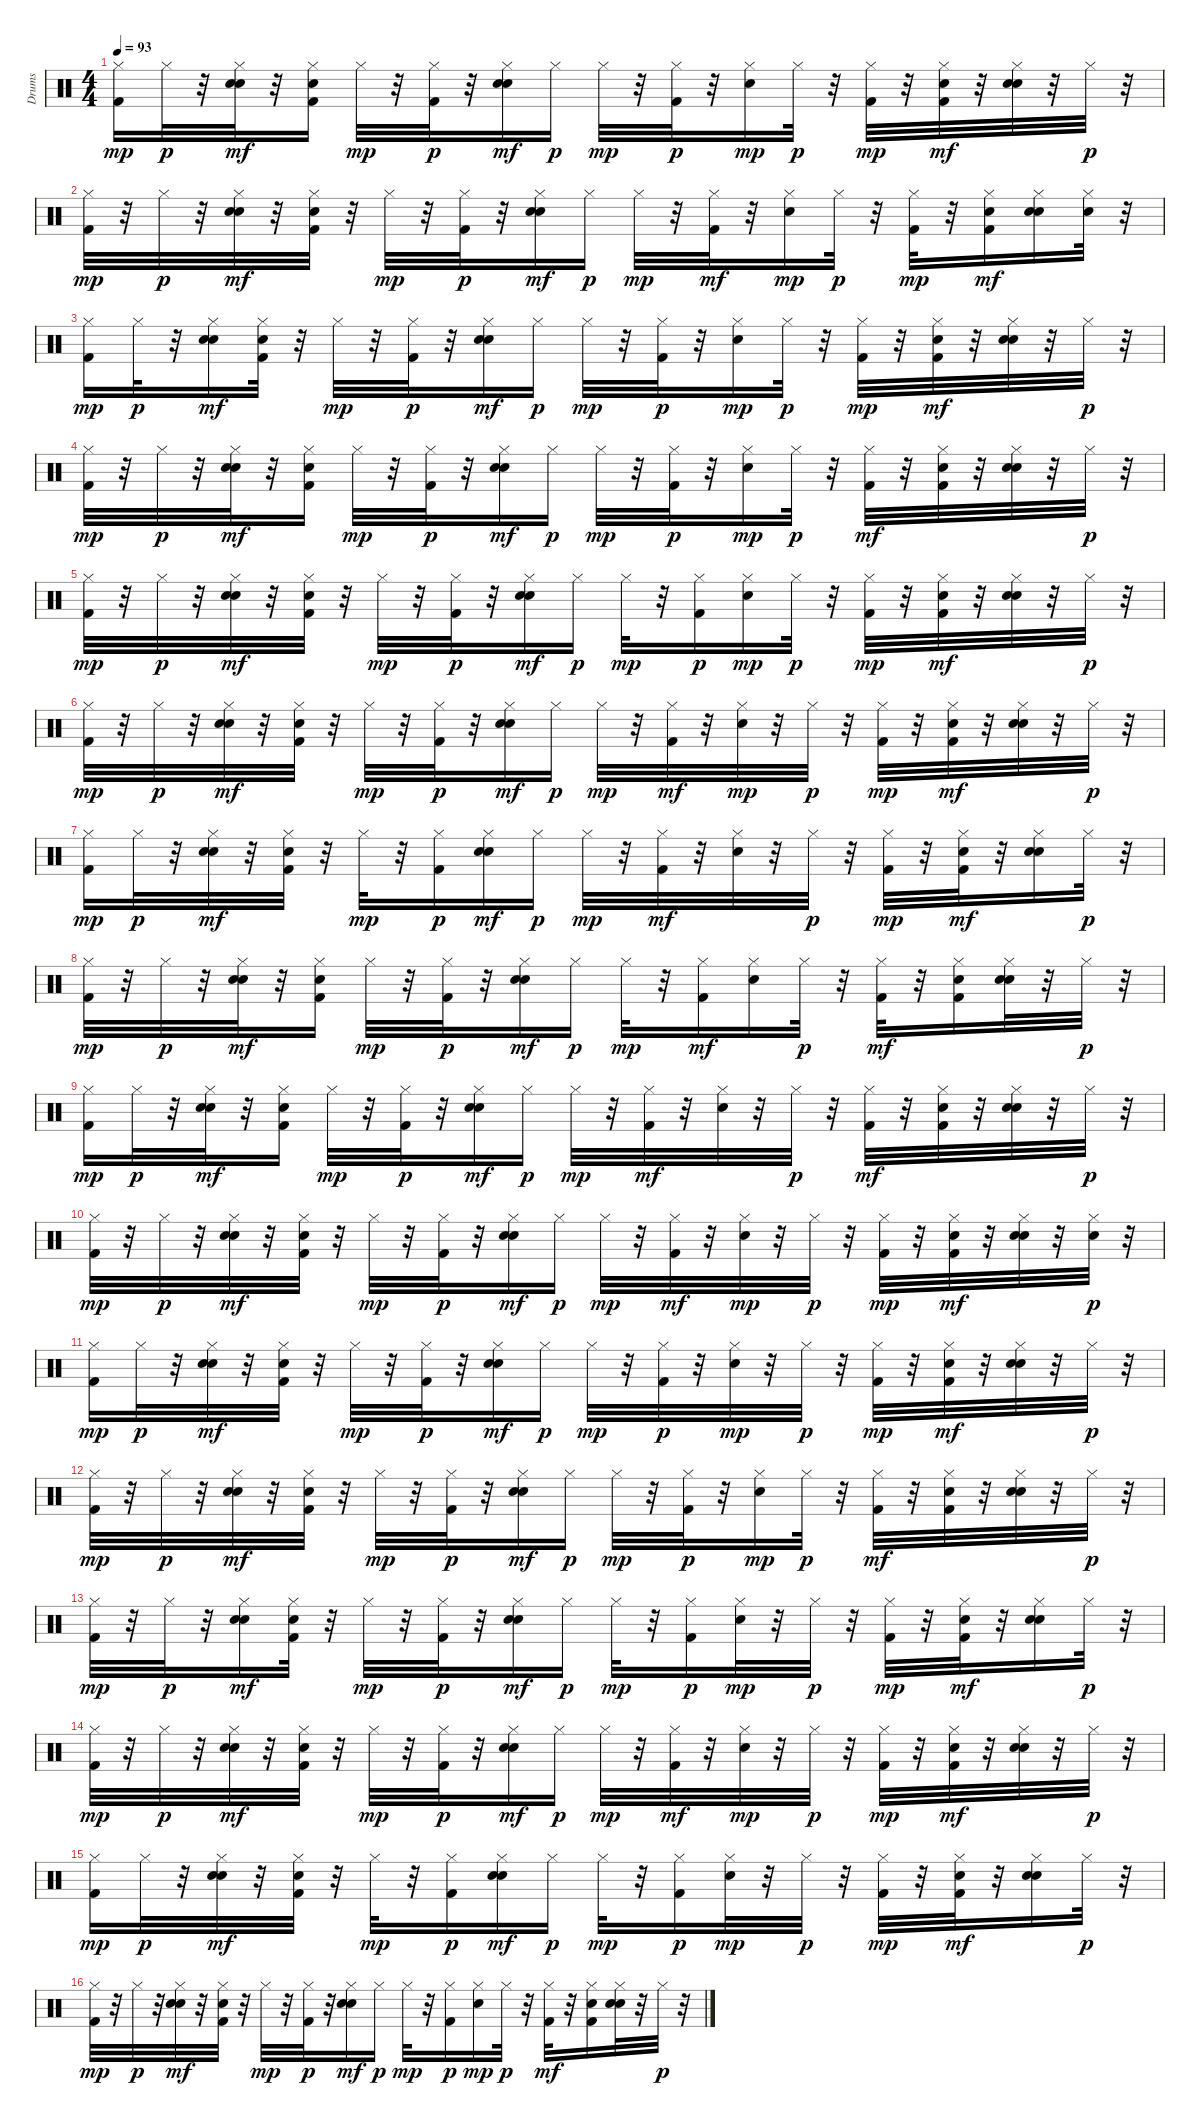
\track ("Drums" "Drums") {instrument percussion}
\staff {score}
\articulation defaults
\ts (4 4)
\tempo 93
\clef neutral
\ks c
("Kick (hit) 2" "Hi-Hat (closed)").16{dy mp} "Hi-Hat (closed)".32{dy p} r.32 ("Electric Snare (hit)" "Hi-Hat (closed)" "Hand Clap (hit)").32{dy mf} r.32 ("Hand Clap (hit)" "Hi-Hat (closed)" "Kick (hit) 2").16 "Hi-Hat (closed)".32{dy mp} r.32 ("Kick (hit) 2" "Hi-Hat (closed)").32{dy p} r.32 ("Hand Clap (hit)" "Hi-Hat (closed)" "Electric Snare (hit)").16{dy mf} "Hi-Hat (closed)".16{dy p} "Hi-Hat (closed)".32{dy mp} r.32 ("Kick (hit) 2" "Hi-Hat (closed)").32{dy p} r.32 ("Electric Snare (hit)" "Hi-Hat (closed)").16{dy mp} "Hi-Hat (closed)".32{dy p} r.32 ("Kick (hit) 2" "Hi-Hat (closed)").32{dy mp} r.32 ("Hand Clap (hit)" "Hi-Hat (closed)" "Kick (hit) 2").32{dy mf} r.32 ("Hand Clap (hit)" "Hi-Hat (closed)" "Electric Snare (hit)").32 r.32 "Hi-Hat (closed)".32{dy p} r.32 |
("Kick (hit) 2" "Hi-Hat (closed)").32{dy mp} r.32 "Hi-Hat (closed)".32{dy p} r.32 ("Electric Snare (hit)" "Hi-Hat (closed)" "Hand Clap (hit)").32{dy mf} r.32 ("Hi-Hat (closed)" "Hand Clap (hit)" "Kick (hit) 2").32 r.32 "Hi-Hat (closed)".32{dy mp} r.32 ("Kick (hit) 2" "Hi-Hat (closed)").32{dy p} r.32 ("Hi-Hat (closed)" "Hand Clap (hit)" "Electric Snare (hit)").16{dy mf} "Hi-Hat (closed)".16{dy p} "Hi-Hat (closed)".32{dy mp} r.32 ("Hi-Hat (closed)" "Kick (hit) 2").32{dy mf} r.32 ("Electric Snare (hit)" "Hi-Hat (closed)").16{dy mp} "Hi-Hat (closed)".32{dy p} r.32 ("Kick (hit) 2" "Hi-Hat (closed)").32{dy mp} r.32 ("Kick (hit) 2" "Hi-Hat (closed)" "Hand Clap (hit)").16{dy mf} ("Electric Snare (hit)" "Hi-Hat (closed)" "Hand Clap (hit)").16 ("Hi-Hat (closed)" "Electric Snare (hit)").32 r.32 |
("Kick (hit) 2" "Hi-Hat (closed)").16{dy mp} "Hi-Hat (closed)".32{dy p} r.32 ("Electric Snare (hit)" "Hi-Hat (closed)" "Hand Clap (hit)").16{dy mf} ("Hand Clap (hit)" "Hi-Hat (closed)" "Kick (hit) 2").32 r.32 "Hi-Hat (closed)".32{dy mp} r.32 ("Kick (hit) 2" "Hi-Hat (closed)").32{dy p} r.32 ("Hand Clap (hit)" "Hi-Hat (closed)" "Electric Snare (hit)").16{dy mf} "Hi-Hat (closed)".16{dy p} "Hi-Hat (closed)".32{dy mp} r.32 ("Kick (hit) 2" "Hi-Hat (closed)").32{dy p} r.32 ("Electric Snare (hit)" "Hi-Hat (closed)").16{dy mp} "Hi-Hat (closed)".32{dy p} r.32 ("Kick (hit) 2" "Hi-Hat (closed)").32{dy mp} r.32 ("Hand Clap (hit)" "Hi-Hat (closed)" "Kick (hit) 2").32{dy mf} r.32 ("Hand Clap (hit)" "Hi-Hat (closed)" "Electric Snare (hit)").32 r.32 "Hi-Hat (closed)".32{dy p} r.32 |
("Kick (hit) 2" "Hi-Hat (closed)").32{dy mp} r.32 "Hi-Hat (closed)".32{dy p} r.32 ("Electric Snare (hit)" "Hi-Hat (closed)" "Hand Clap (hit)").32{dy mf} r.32 ("Hand Clap (hit)" "Hi-Hat (closed)" "Kick (hit) 2").16 "Hi-Hat (closed)".32{dy mp} r.32 ("Kick (hit) 2" "Hi-Hat (closed)").32{dy p} r.32 ("Hand Clap (hit)" "Hi-Hat (closed)" "Electric Snare (hit)").16{dy mf} "Hi-Hat (closed)".16{dy p} "Hi-Hat (closed)".32{dy mp} r.32 ("Kick (hit) 2" "Hi-Hat (closed)").32{dy p} r.32 ("Electric Snare (hit)" "Hi-Hat (closed)").16{dy mp} "Hi-Hat (closed)".32{dy p} r.32 ("Hi-Hat (closed)" "Kick (hit) 2").32{dy mf} r.32 ("Hand Clap (hit)" "Hi-Hat (closed)" "Kick (hit) 2").32 r.32 ("Hand Clap (hit)" "Hi-Hat (closed)" "Electric Snare (hit)").32 r.32 "Hi-Hat (closed)".32{dy p} r.32 |
("Kick (hit) 2" "Hi-Hat (closed)").32{dy mp} r.32 "Hi-Hat (closed)".32{dy p} r.32 ("Electric Snare (hit)" "Hi-Hat (closed)" "Hand Clap (hit)").32{dy mf} r.32 ("Hand Clap (hit)" "Hi-Hat (closed)" "Kick (hit) 2").32 r.32 "Hi-Hat (closed)".32{dy mp} r.32 ("Kick (hit) 2" "Hi-Hat (closed)").32{dy p} r.32 ("Hand Clap (hit)" "Hi-Hat (closed)" "Electric Snare (hit)").16{dy mf} "Hi-Hat (closed)".16{dy p} "Hi-Hat (closed)".32{dy mp} r.32 ("Kick (hit) 2" "Hi-Hat (closed)").16{dy p} ("Electric Snare (hit)" "Hi-Hat (closed)").16{dy mp} "Hi-Hat (closed)".32{dy p} r.32 ("Kick (hit) 2" "Hi-Hat (closed)").32{dy mp} r.32 ("Hand Clap (hit)" "Hi-Hat (closed)" "Kick (hit) 2").32{dy mf} r.32 ("Hand Clap (hit)" "Hi-Hat (closed)" "Electric Snare (hit)").32 r.32 "Hi-Hat (closed)".32{dy p} r.32 |
("Kick (hit) 2" "Hi-Hat (closed)").32{dy mp} r.32 "Hi-Hat (closed)".32{dy p} r.32 ("Electric Snare (hit)" "Hi-Hat (closed)" "Hand Clap (hit)").32{dy mf} r.32 ("Hi-Hat (closed)" "Hand Clap (hit)" "Kick (hit) 2").32 r.32 "Hi-Hat (closed)".32{dy mp} r.32 ("Kick (hit) 2" "Hi-Hat (closed)").32{dy p} r.32 ("Hi-Hat (closed)" "Hand Clap (hit)" "Electric Snare (hit)").16{dy mf} "Hi-Hat (closed)".16{dy p} "Hi-Hat (closed)".32{dy mp} r.32 ("Hi-Hat (closed)" "Kick (hit) 2").32{dy mf} r.32 ("Electric Snare (hit)" "Hi-Hat (closed)").32{dy mp} r.32 "Hi-Hat (closed)".32{dy p} r.32 ("Kick (hit) 2" "Hi-Hat (closed)").32{dy mp} r.32 ("Kick (hit) 2" "Hi-Hat (closed)" "Hand Clap (hit)").32{dy mf} r.32 ("Electric Snare (hit)" "Hi-Hat (closed)" "Hand Clap (hit)").32 r.32 "Hi-Hat (closed)".32{dy p} r.32 |
("Kick (hit) 2" "Hi-Hat (closed)").16{dy mp} "Hi-Hat (closed)".32{dy p} r.32 ("Electric Snare (hit)" "Hi-Hat (closed)" "Hand Clap (hit)").32{dy mf} r.32 ("Hand Clap (hit)" "Hi-Hat (closed)" "Kick (hit) 2").32 r.32 "Hi-Hat (closed)".32{dy mp} r.32 ("Kick (hit) 2" "Hi-Hat (closed)").16{dy p} ("Hand Clap (hit)" "Hi-Hat (closed)" "Electric Snare (hit)").16{dy mf} "Hi-Hat (closed)".16{dy p} "Hi-Hat (closed)".32{dy mp} r.32 ("Hi-Hat (closed)" "Kick (hit) 2").32{dy mf} r.32 ("Hi-Hat (closed)" "Electric Snare (hit)").32 r.32 "Hi-Hat (closed)".32{dy p} r.32 ("Kick (hit) 2" "Hi-Hat (closed)").32{dy mp} r.32 ("Hand Clap (hit)" "Hi-Hat (closed)" "Kick (hit) 2").32{dy mf} r.32 ("Hi-Hat (closed)" "Hand Clap (hit)" "Electric Snare (hit)").16 "Hi-Hat (closed)".32{dy p} r.32 |
("Kick (hit) 2" "Hi-Hat (closed)").32{dy mp} r.32 "Hi-Hat (closed)".32{dy p} r.32 ("Electric Snare (hit)" "Hi-Hat (closed)" "Hand Clap (hit)").32{dy mf} r.32 ("Hand Clap (hit)" "Hi-Hat (closed)" "Kick (hit) 2").16 "Hi-Hat (closed)".32{dy mp} r.32 ("Kick (hit) 2" "Hi-Hat (closed)").32{dy p} r.32 ("Hand Clap (hit)" "Hi-Hat (closed)" "Electric Snare (hit)").16{dy mf} "Hi-Hat (closed)".16{dy p} "Hi-Hat (closed)".32{dy mp} r.32 ("Hi-Hat (closed)" "Kick (hit) 2").16{dy mf} ("Hi-Hat (closed)" "Electric Snare (hit)").16 "Hi-Hat (closed)".32{dy p} r.32 ("Hi-Hat (closed)" "Kick (hit) 2").32{dy mf} r.32 ("Hand Clap (hit)" "Hi-Hat (closed)" "Kick (hit) 2").16 ("Hi-Hat (closed)" "Hand Clap (hit)" "Electric Snare (hit)").32 r.32 "Hi-Hat (closed)".32{dy p} r.32 |
("Kick (hit) 2" "Hi-Hat (closed)").16{dy mp} "Hi-Hat (closed)".32{dy p} r.32 ("Electric Snare (hit)" "Hi-Hat (closed)" "Hand Clap (hit)").32{dy mf} r.32 ("Hand Clap (hit)" "Hi-Hat (closed)" "Kick (hit) 2").16 "Hi-Hat (closed)".32{dy mp} r.32 ("Kick (hit) 2" "Hi-Hat (closed)").32{dy p} r.32 ("Hand Clap (hit)" "Hi-Hat (closed)" "Electric Snare (hit)").16{dy mf} "Hi-Hat (closed)".16{dy p} "Hi-Hat (closed)".32{dy mp} r.32 ("Hi-Hat (closed)" "Kick (hit) 2").32{dy mf} r.32 ("Hi-Hat (closed)" "Electric Snare (hit)").32 r.32 "Hi-Hat (closed)".32{dy p} r.32 ("Hi-Hat (closed)" "Kick (hit) 2").32{dy mf} r.32 ("Hi-Hat (closed)" "Hand Clap (hit)" "Kick (hit) 2").32 r.32 ("Hi-Hat (closed)" "Hand Clap (hit)" "Electric Snare (hit)").32 r.32 "Hi-Hat (closed)".32{dy p} r.32 |
("Kick (hit) 2" "Hi-Hat (closed)").32{dy mp} r.32 "Hi-Hat (closed)".32{dy p} r.32 ("Hand Clap (hit)" "Hi-Hat (closed)" "Electric Snare (hit)").32{dy mf} r.32 ("Hand Clap (hit)" "Hi-Hat (closed)" "Kick (hit) 2").32 r.32 "Hi-Hat (closed)".32{dy mp} r.32 ("Kick (hit) 2" "Hi-Hat (closed)").32{dy p} r.32 ("Hi-Hat (closed)" "Electric Snare (hit)" "Hand Clap (hit)").16{dy mf} "Hi-Hat (closed)".16{dy p} "Hi-Hat (closed)".32{dy mp} r.32 ("Hi-Hat (closed)" "Kick (hit) 2").32{dy mf} r.32 ("Electric Snare (hit)" "Hi-Hat (closed)").32{dy mp} r.32 "Hi-Hat (closed)".32{dy p} r.32 ("Kick (hit) 2" "Hi-Hat (closed)").32{dy mp} r.32 ("Kick (hit) 2" "Hi-Hat (closed)" "Hand Clap (hit)").32{dy mf} r.32 ("Hand Clap (hit)" "Hi-Hat (closed)" "Electric Snare (hit)").32 r.32 ("Electric Snare (hit)" "Hi-Hat (closed)").32{dy p} r.32 |
("Kick (hit) 2" "Hi-Hat (closed)").16{dy mp} "Hi-Hat (closed)".32{dy p} r.32 ("Electric Snare (hit)" "Hi-Hat (closed)" "Hand Clap (hit)").32{dy mf} r.32 ("Hand Clap (hit)" "Hi-Hat (closed)" "Kick (hit) 2").32 r.32 "Hi-Hat (closed)".32{dy mp} r.32 ("Kick (hit) 2" "Hi-Hat (closed)").32{dy p} r.32 ("Hand Clap (hit)" "Hi-Hat (closed)" "Electric Snare (hit)").16{dy mf} "Hi-Hat (closed)".16{dy p} "Hi-Hat (closed)".32{dy mp} r.32 ("Kick (hit) 2" "Hi-Hat (closed)").32{dy p} r.32 ("Electric Snare (hit)" "Hi-Hat (closed)").32{dy mp} r.32 "Hi-Hat (closed)".32{dy p} r.32 ("Kick (hit) 2" "Hi-Hat (closed)").32{dy mp} r.32 ("Hand Clap (hit)" "Hi-Hat (closed)" "Kick (hit) 2").32{dy mf} r.32 ("Hand Clap (hit)" "Hi-Hat (closed)" "Electric Snare (hit)").32 r.32 "Hi-Hat (closed)".32{dy p} r.32 |
("Kick (hit) 2" "Hi-Hat (closed)").32{dy mp} r.32 "Hi-Hat (closed)".32{dy p} r.32 ("Electric Snare (hit)" "Hi-Hat (closed)" "Hand Clap (hit)").32{dy mf} r.32 ("Hand Clap (hit)" "Hi-Hat (closed)" "Kick (hit) 2").32 r.32 "Hi-Hat (closed)".32{dy mp} r.32 ("Kick (hit) 2" "Hi-Hat (closed)").32{dy p} r.32 ("Hand Clap (hit)" "Hi-Hat (closed)" "Electric Snare (hit)").16{dy mf} "Hi-Hat (closed)".16{dy p} "Hi-Hat (closed)".32{dy mp} r.32 ("Kick (hit) 2" "Hi-Hat (closed)").32{dy p} r.32 ("Electric Snare (hit)" "Hi-Hat (closed)").16{dy mp} "Hi-Hat (closed)".32{dy p} r.32 ("Hi-Hat (closed)" "Kick (hit) 2").32{dy mf} r.32 ("Hand Clap (hit)" "Hi-Hat (closed)" "Kick (hit) 2").32 r.32 ("Hand Clap (hit)" "Hi-Hat (closed)" "Electric Snare (hit)").32 r.32 "Hi-Hat (closed)".32{dy p} r.32 |
("Kick (hit) 2" "Hi-Hat (closed)").32{dy mp} r.32 "Hi-Hat (closed)".32{dy p} r.32 ("Electric Snare (hit)" "Hi-Hat (closed)" "Hand Clap (hit)").16{dy mf} ("Hand Clap (hit)" "Hi-Hat (closed)" "Kick (hit) 2").32 r.32 "Hi-Hat (closed)".32{dy mp} r.32 ("Kick (hit) 2" "Hi-Hat (closed)").32{dy p} r.32 ("Hand Clap (hit)" "Hi-Hat (closed)" "Electric Snare (hit)").16{dy mf} "Hi-Hat (closed)".16{dy p} "Hi-Hat (closed)".32{dy mp} r.32 ("Kick (hit) 2" "Hi-Hat (closed)").16{dy p} ("Electric Snare (hit)" "Hi-Hat (closed)").32{dy mp} r.32 "Hi-Hat (closed)".32{dy p} r.32 ("Kick (hit) 2" "Hi-Hat (closed)").32{dy mp} r.32 ("Hand Clap (hit)" "Hi-Hat (closed)" "Kick (hit) 2").32{dy mf} r.32 ("Hand Clap (hit)" "Hi-Hat (closed)" "Electric Snare (hit)").16 "Hi-Hat (closed)".32{dy p} r.32 |
("Kick (hit) 2" "Hi-Hat (closed)").32{dy mp} r.32 "Hi-Hat (closed)".32{dy p} r.32 ("Electric Snare (hit)" "Hi-Hat (closed)" "Hand Clap (hit)").32{dy mf} r.32 ("Hi-Hat (closed)" "Hand Clap (hit)" "Kick (hit) 2").32 r.32 "Hi-Hat (closed)".32{dy mp} r.32 ("Kick (hit) 2" "Hi-Hat (closed)").32{dy p} r.32 ("Hi-Hat (closed)" "Hand Clap (hit)" "Electric Snare (hit)").16{dy mf} "Hi-Hat (closed)".16{dy p} "Hi-Hat (closed)".32{dy mp} r.32 ("Hi-Hat (closed)" "Kick (hit) 2").32{dy mf} r.32 ("Electric Snare (hit)" "Hi-Hat (closed)").32{dy mp} r.32 "Hi-Hat (closed)".32{dy p} r.32 ("Kick (hit) 2" "Hi-Hat (closed)").32{dy mp} r.32 ("Kick (hit) 2" "Hi-Hat (closed)" "Hand Clap (hit)").32{dy mf} r.32 ("Electric Snare (hit)" "Hi-Hat (closed)" "Hand Clap (hit)").32 r.32 "Hi-Hat (closed)".32{dy p} r.32 |
("Kick (hit) 2" "Hi-Hat (closed)").16{dy mp} "Hi-Hat (closed)".32{dy p} r.32 ("Electric Snare (hit)" "Hi-Hat (closed)" "Hand Clap (hit)").32{dy mf} r.32 ("Hand Clap (hit)" "Hi-Hat (closed)" "Kick (hit) 2").32 r.32 "Hi-Hat (closed)".32{dy mp} r.32 ("Kick (hit) 2" "Hi-Hat (closed)").16{dy p} ("Hand Clap (hit)" "Hi-Hat (closed)" "Electric Snare (hit)").16{dy mf} "Hi-Hat (closed)".16{dy p} "Hi-Hat (closed)".32{dy mp} r.32 ("Kick (hit) 2" "Hi-Hat (closed)").16{dy p} ("Electric Snare (hit)" "Hi-Hat (closed)").32{dy mp} r.32 "Hi-Hat (closed)".32{dy p} r.32 ("Kick (hit) 2" "Hi-Hat (closed)").32{dy mp} r.32 ("Hand Clap (hit)" "Hi-Hat (closed)" "Kick (hit) 2").32{dy mf} r.32 ("Hand Clap (hit)" "Hi-Hat (closed)" "Electric Snare (hit)").16 "Hi-Hat (closed)".32{dy p} r.32 |
("Kick (hit) 2" "Hi-Hat (closed)").32{dy mp} r.32 "Hi-Hat (closed)".32{dy p} r.32 ("Electric Snare (hit)" "Hi-Hat (closed)" "Hand Clap (hit)").32{dy mf} r.32 ("Hand Clap (hit)" "Hi-Hat (closed)" "Kick (hit) 2").32 r.32 "Hi-Hat (closed)".32{dy mp} r.32 ("Kick (hit) 2" "Hi-Hat (closed)").32{dy p} r.32 ("Hand Clap (hit)" "Hi-Hat (closed)" "Electric Snare (hit)").16{dy mf} "Hi-Hat (closed)".16{dy p} "Hi-Hat (closed)".32{dy mp} r.32 ("Kick (hit) 2" "Hi-Hat (closed)").16{dy p} ("Electric Snare (hit)" "Hi-Hat (closed)").16{dy mp} "Hi-Hat (closed)".32{dy p} r.32 ("Hi-Hat (closed)" "Kick (hit) 2").32{dy mf} r.32 ("Hand Clap (hit)" "Hi-Hat (closed)" "Kick (hit) 2").16 ("Hand Clap (hit)" "Hi-Hat (closed)" "Electric Snare (hit)").32 r.32 "Hi-Hat (closed)".32{dy p} r.32
